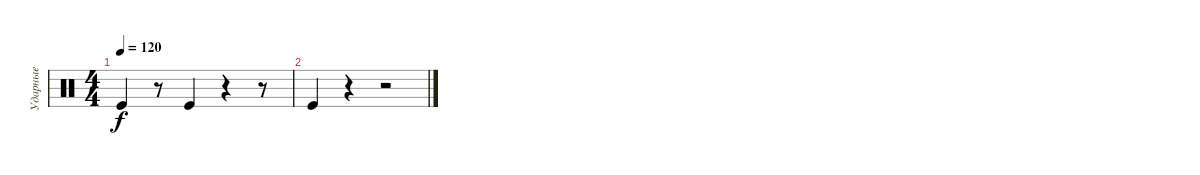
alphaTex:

\track ("Ударные" "Ударные") {instrument percussion}
\staff {score}
\articulation defaults
\ts (4 4)
\tempo 120
\clef neutral
\ks c "Kick (hit)".4{dy f}
r.8 "Kick (hit)".4 r.4 r.8 |
"Kick (hit)".4 r.4 r.2
